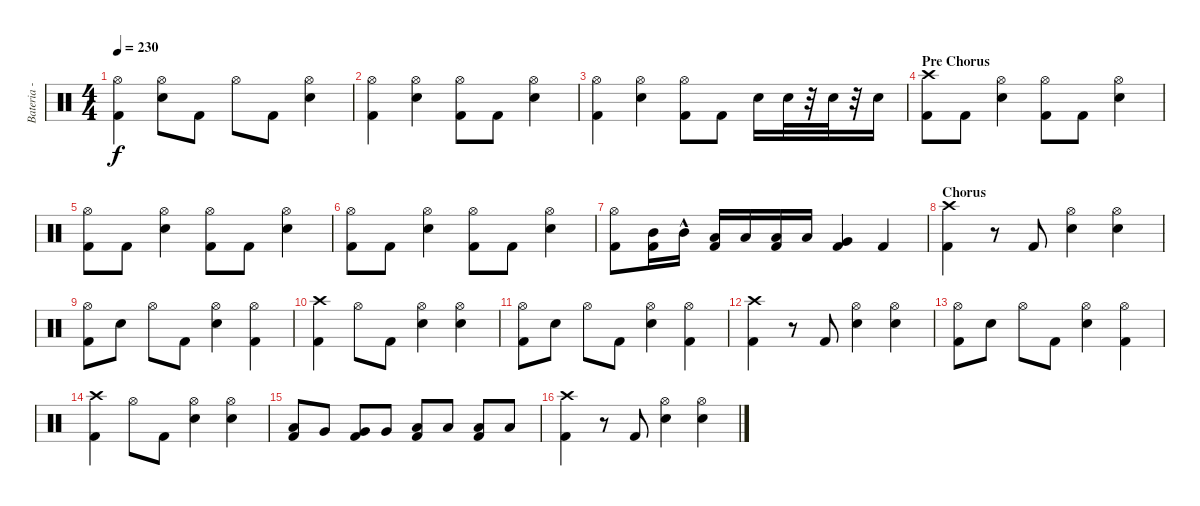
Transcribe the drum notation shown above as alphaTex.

\track ("Bateria - Larzon" "Bateria - ") {instrument percussion}
\staff {score}
\articulation defaults
\ts (4 4)
\tempo 230
\clef neutral
\ks c
("Hi-Hat (open)" "Kick (hit) 2").4{dy f} ("Hi-Hat (open)" "Electric Snare (hit)").8 "Kick (hit) 2".8 "Hi-Hat (open)".8 "Kick (hit) 2".8 ("Hi-Hat (open)" "Electric Snare (hit)").4 |
("Hi-Hat (open)" "Kick (hit) 2").4 ("Hi-Hat (open)" "Electric Snare (hit)").4 ("Hi-Hat (open)" "Kick (hit) 2").8 "Kick (hit) 2".8 ("Hi-Hat (open)" "Electric Snare (hit)").4 |
("Hi-Hat (open)" "Kick (hit) 2").4 ("Hi-Hat (open)" "Electric Snare (hit)").4 ("Hi-Hat (open)" "Kick (hit) 2").8 "Kick (hit) 2".8 "Electric Snare (hit)".16 "Electric Snare (hit)".32 r.32 "Electric Snare (hit)".32 r.32 "Electric Snare (hit)".16 |
\section ("" "Pre Chorus")
("Crash high (hit)" "Kick (hit) 2").8 "Kick (hit) 2".8 ("Hi-Hat (open)" "Electric Snare (hit)").4 ("Kick (hit) 2" "Hi-Hat (open)").8 "Kick (hit) 2".8 ("Hi-Hat (open)" "Electric Snare (hit)").4 |
("Kick (hit) 2" "Hi-Hat (open)").8 "Kick (hit) 2".8 ("Hi-Hat (open)" "Electric Snare (hit)").4 ("Kick (hit) 2" "Hi-Hat (open)").8 "Kick (hit) 2".8 ("Hi-Hat (open)" "Electric Snare (hit)").4 |
("Kick (hit) 2" "Hi-Hat (open)").8 "Kick (hit) 2".8 ("Hi-Hat (open)" "Electric Snare (hit)").4 ("Kick (hit) 2" "Hi-Hat (open)").8 "Kick (hit) 2".8 ("Hi-Hat (open)" "Electric Snare (hit)").4 |
("Kick (hit) 2" "Hi-Hat (open)").8 ("Mid Tom (hit)" "Kick (hit) 2").16 "Mid Tom (hit)"{hac}.16 ("Kick (hit) 2" "Low Tom (hit)").16 "Low Tom (hit)".16 ("Kick (hit) 2" "Low Tom (hit)").16 "Low Tom (hit)".16 ("Kick (hit) 2" "Very Low Tom (hit)").4 "Kick (hit) 2".4 |
\section ("" "Chorus")
("Crash high (hit)" "Kick (hit) 2").4 r.8 "Kick (hit) 2".8 ("Electric Snare (hit)" "Hi-Hat (open)").4 ("Hi-Hat (open)" "Electric Snare (hit)").4 |
("Hi-Hat (open)" "Kick (hit) 2").8 "Electric Snare (hit)".8 "Hi-Hat (open)".8 "Kick (hit) 2".8 ("Hi-Hat (open)" "Electric Snare (hit)").4 ("Hi-Hat (open)" "Kick (hit) 2").4 |
("Crash high (hit)" "Kick (hit) 2").4 "Hi-Hat (open)".8 "Kick (hit) 2".8 ("Electric Snare (hit)" "Hi-Hat (open)").4 ("Hi-Hat (open)" "Electric Snare (hit)").4 |
("Hi-Hat (open)" "Kick (hit) 2").8 "Electric Snare (hit)".8 "Hi-Hat (open)".8 "Kick (hit) 2".8 ("Hi-Hat (open)" "Electric Snare (hit)").4 ("Hi-Hat (open)" "Kick (hit) 2").4 |
("Crash high (hit)" "Kick (hit) 2").4 r.8 "Kick (hit) 2".8 ("Electric Snare (hit)" "Hi-Hat (open)").4 ("Hi-Hat (open)" "Electric Snare (hit)").4 |
("Hi-Hat (open)" "Kick (hit) 2").8 "Electric Snare (hit)".8 "Hi-Hat (open)".8 "Kick (hit) 2".8 ("Hi-Hat (open)" "Electric Snare (hit)").4 ("Hi-Hat (open)" "Kick (hit) 2").4 |
("Crash high (hit)" "Kick (hit) 2").4 "Hi-Hat (open)".8 "Kick (hit) 2".8 ("Electric Snare (hit)" "Hi-Hat (open)").4 ("Hi-Hat (open)" "Electric Snare (hit)").4 |
("Kick (hit) 2" "Low Tom (hit)").8 "Very Low Tom (hit)".8 ("Kick (hit) 2" "Very Low Tom (hit)").8 "Very Low Tom (hit)".8 ("Kick (hit) 2" "Low Tom (hit)").8 "Low Floor Tom (hit)".8 ("Low Floor Tom (hit)" "Kick (hit) 2").8 "Low Floor Tom (hit)".8 |
("Crash high (hit)" "Kick (hit) 2").4 r.8 "Kick (hit) 2".8 ("Electric Snare (hit)" "Hi-Hat (open)").4 ("Hi-Hat (open)" "Electric Snare (hit)").4
